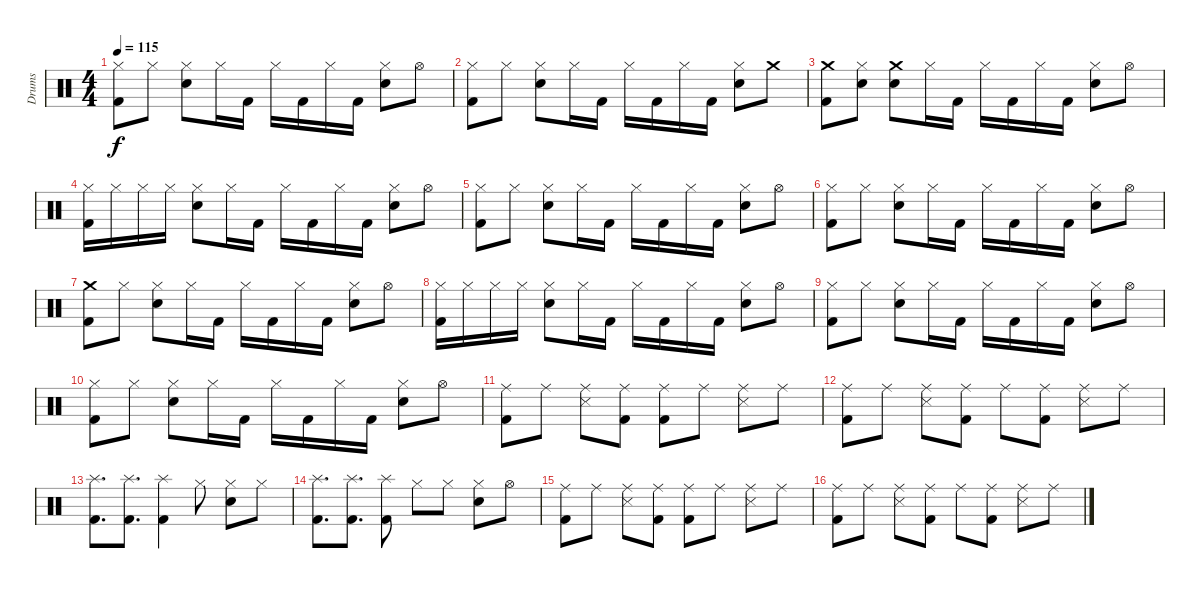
\track ("Drums" "Drums") {instrument percussion}
\staff {score}
\articulation defaults
\ts (4 4)
\tempo 115
\clef neutral
\ks c
("Hi-Hat (closed)" "Kick (hit) 2").8{dy f} "Hi-Hat (closed)".8 ("Hi-Hat (closed)" "Snare (hit) 2").8 "Hi-Hat (closed)".16 "Kick (hit) 2".16 "Hi-Hat (closed)".16 "Kick (hit) 2".16 "Hi-Hat (closed)".16 "Kick (hit) 2".16 ("Hi-Hat (closed)" "Snare (hit) 2").8 "Hi-Hat (open)".8 |
("Hi-Hat (closed)" "Kick (hit) 2").8 "Hi-Hat (closed)".8 ("Hi-Hat (closed)" "Snare (hit) 2").8 "Hi-Hat (closed)".16 "Kick (hit) 2".16 "Hi-Hat (closed)".16 "Kick (hit) 2".16 "Hi-Hat (closed)".16 "Kick (hit) 2".16 ("Hi-Hat (closed)" "Snare (hit) 2").8 "Crash medium (hit)".8 |
("Crash medium (hit)" "Kick (hit) 2").8 ("Hi-Hat (closed)" "Snare (hit) 2").8 ("Crash medium (hit)" "Snare (hit) 2").8 "Hi-Hat (closed)".16 "Kick (hit) 2".16 "Hi-Hat (closed)".16 "Kick (hit) 2".16 "Hi-Hat (closed)".16 "Kick (hit) 2".16 ("Hi-Hat (closed)" "Snare (hit) 2").8 "Hi-Hat (open)".8 |
("Hi-Hat (closed)" "Kick (hit) 2").16 "Hi-Hat (closed)".16 "Hi-Hat (closed)".16 "Hi-Hat (closed)".16 ("Hi-Hat (closed)" "Snare (hit) 2").8 "Hi-Hat (closed)".16 "Kick (hit) 2".16 "Hi-Hat (closed)".16 "Kick (hit) 2".16 "Hi-Hat (closed)".16 "Kick (hit) 2".16 ("Hi-Hat (closed)" "Snare (hit) 2").8 "Hi-Hat (open)".8 |
("Hi-Hat (closed)" "Kick (hit) 2").8 "Hi-Hat (closed)".8 ("Hi-Hat (closed)" "Snare (hit) 2").8 "Hi-Hat (closed)".16 "Kick (hit) 2".16 "Hi-Hat (closed)".16 "Kick (hit) 2".16 "Hi-Hat (closed)".16 "Kick (hit) 2".16 ("Hi-Hat (closed)" "Snare (hit) 2").8 "Hi-Hat (open)".8 |
("Hi-Hat (closed)" "Kick (hit) 2").8 "Hi-Hat (closed)".8 ("Hi-Hat (closed)" "Snare (hit) 2").8 "Hi-Hat (closed)".16 "Kick (hit) 2".16 "Hi-Hat (closed)".16 "Kick (hit) 2".16 "Hi-Hat (closed)".16 "Kick (hit) 2".16 ("Hi-Hat (closed)" "Snare (hit) 2").8 "Hi-Hat (open)".8 |
("Crash medium (hit)" "Kick (hit) 2").8 "Hi-Hat (closed)".8 ("Hi-Hat (closed)" "Snare (hit) 2").8 "Hi-Hat (closed)".16 "Kick (hit) 2".16 "Hi-Hat (closed)".16 "Kick (hit) 2".16 "Hi-Hat (closed)".16 "Kick (hit) 2".16 ("Hi-Hat (closed)" "Snare (hit) 2").8 "Hi-Hat (open)".8 |
("Hi-Hat (closed)" "Kick (hit) 2").16 "Hi-Hat (closed)".16 "Hi-Hat (closed)".16 "Hi-Hat (closed)".16 ("Hi-Hat (closed)" "Snare (hit) 2").8 "Hi-Hat (closed)".16 "Kick (hit) 2".16 "Hi-Hat (closed)".16 "Kick (hit) 2".16 "Hi-Hat (closed)".16 "Kick (hit) 2".16 ("Hi-Hat (closed)" "Snare (hit) 2").8 "Hi-Hat (open)".8 |
("Hi-Hat (closed)" "Kick (hit) 2").8 "Hi-Hat (closed)".8 ("Hi-Hat (closed)" "Snare (hit) 2").8 "Hi-Hat (closed)".16 "Kick (hit) 2".16 "Hi-Hat (closed)".16 "Kick (hit) 2".16 "Hi-Hat (closed)".16 "Kick (hit) 2".16 ("Hi-Hat (closed)" "Snare (hit) 2").8 "Hi-Hat (open)".8 |
("Hi-Hat (closed)" "Kick (hit) 2").8 "Hi-Hat (closed)".8 ("Hi-Hat (closed)" "Snare (hit) 2").8 "Hi-Hat (closed)".16 "Kick (hit) 2".16 "Hi-Hat (closed)".16 "Kick (hit) 2".16 "Hi-Hat (closed)".16 "Kick (hit) 2".16 ("Hi-Hat (closed)" "Snare (hit) 2").8 "Hi-Hat (open)".8 |
("Ride (middle)" "Kick (hit) 2").8 "Ride (middle)".8 ("Ride (middle)" "Snare (side stick) 3").8 ("Ride (middle)" "Kick (hit) 2").8 ("Ride (middle)" "Kick (hit) 2").8 "Ride (middle)".8 ("Ride (middle)" "Snare (side stick) 3").8 "Ride (middle)".8 |
("Ride (middle)" "Kick (hit) 2").8 "Ride (middle)".8 ("Ride (middle)" "Snare (side stick) 3").8 ("Ride (middle)" "Kick (hit) 2").8 "Ride (middle)".8 ("Ride (middle)" "Kick (hit) 2").8 ("Ride (middle)" "Snare (side stick) 3").8 "Ride (middle)".8 |
("Splash (hit)" "Kick (hit) 2").8{d} ("Splash (hit)" "Kick (hit) 2").8{d} ("Splash (hit)" "Kick (hit) 2").4 "Hi-Hat (closed)".8 ("Hi-Hat (closed)" "Snare (hit) 2").8 "Hi-Hat (closed)".8 |
("Splash (hit)" "Kick (hit) 2").8{d} ("Splash (hit)" "Kick (hit) 2").8{d} ("Splash (hit)" "Kick (hit) 2").8 "Hi-Hat (closed)".8 "Hi-Hat (closed)".8 ("Hi-Hat (closed)" "Snare (hit) 2").8 "Hi-Hat (open)".8 |
("Ride (middle)" "Kick (hit) 2").8 "Ride (middle)".8 ("Ride (middle)" "Snare (side stick) 3").8 ("Ride (middle)" "Kick (hit) 2").8 ("Ride (middle)" "Kick (hit) 2").8 "Ride (middle)".8 ("Ride (middle)" "Snare (side stick) 3").8 "Ride (middle)".8 |
("Ride (middle)" "Kick (hit) 2").8 "Ride (middle)".8 ("Ride (middle)" "Snare (side stick) 3").8 ("Ride (middle)" "Kick (hit) 2").8 "Ride (middle)".8 ("Ride (middle)" "Kick (hit) 2").8 ("Ride (middle)" "Snare (side stick) 3").8 "Ride (middle)".8
